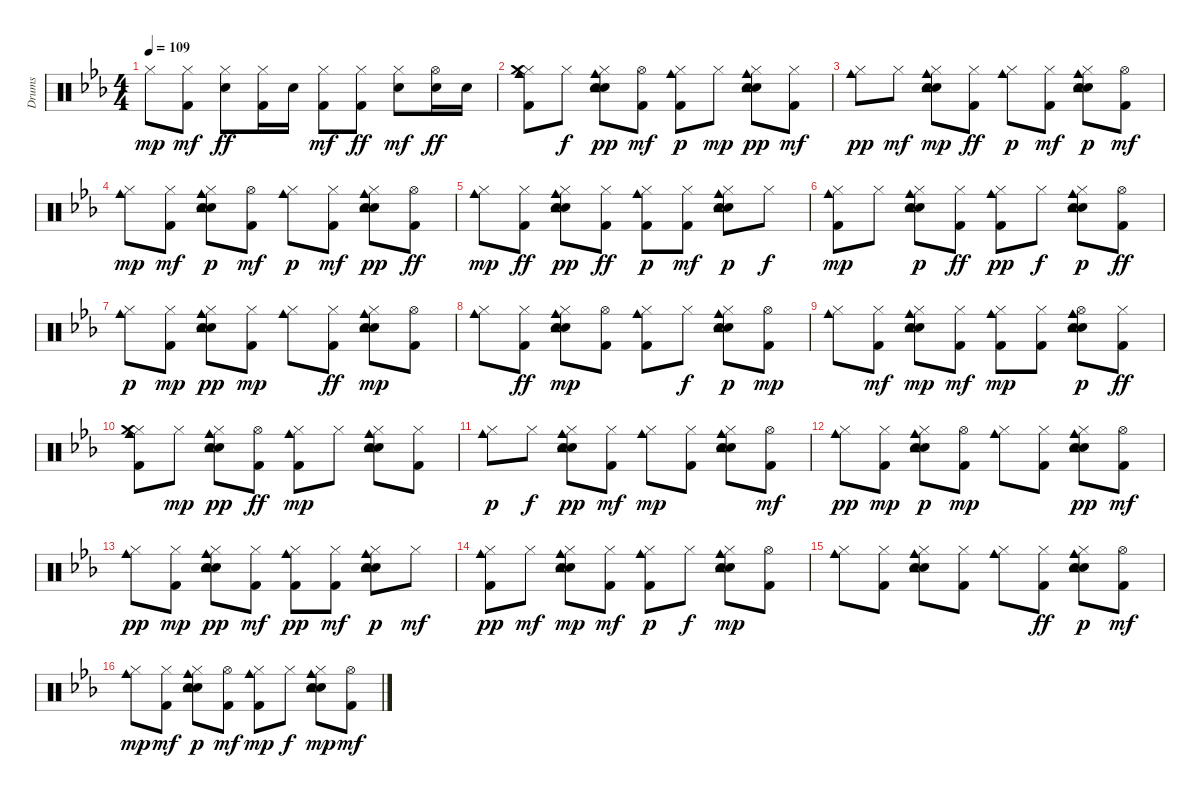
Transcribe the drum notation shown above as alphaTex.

\track ("Drums" "Drums") {instrument percussion}
\staff {score}
\articulation defaults
\ts (4 4)
\tempo 109
\clef neutral
\ks eb "Hi-Hat (closed)".8{dy mp}
("Kick (hit) 2" "Hi-Hat (closed)").8{dy mf} ("Electric Snare (hit)" "Hi-Hat (closed)").8{dy ff} ("Kick (hit) 2" "Hi-Hat (closed)").16 "Electric Snare (hit)".16 ("Kick (hit) 2" "Hi-Hat (closed)").8{dy mf} ("Kick (hit) 2" "Hi-Hat (closed)").8{dy ff} ("Electric Snare (hit)" "Hi-Hat (closed)").8{dy mf} ("Electric Snare (hit)" "Hi-Hat (open)").16{dy ff} "Electric Snare (hit)".16 |
("Kick (hit) 2" "Hi-Hat (closed)" "Cowbell medium (hit)" "Crash medium (hit)").8 "Hi-Hat (closed)".8{dy f} ("Hand Clap (hit)" "Electric Snare (hit)" "Hi-Hat (closed)" "Tambourine (hit)" "Cowbell medium (hit)").8{dy pp} ("Kick (hit) 2" "Hi-Hat (open)").8{dy mf} ("Kick (hit) 2" "Hi-Hat (closed)" "Cowbell medium (hit)").8{dy p} "Hi-Hat (closed)".8{dy mp} ("Hand Clap (hit)" "Electric Snare (hit)" "Hi-Hat (closed)" "Tambourine (hit)" "Cowbell medium (hit)").8{dy pp} ("Kick (hit) 2" "Hi-Hat (closed)").8{dy mf} |
("Hi-Hat (closed)" "Cowbell medium (hit)").8{dy pp} "Hi-Hat (closed)".8{dy mf} ("Hand Clap (hit)" "Electric Snare (hit)" "Hi-Hat (closed)" "Tambourine (hit)" "Cowbell medium (hit)").8{dy mp} ("Kick (hit) 2" "Hi-Hat (closed)").8{dy ff} ("Hi-Hat (closed)" "Cowbell medium (hit)").8{dy p} ("Kick (hit) 2" "Hi-Hat (closed)").8{dy mf} ("Hand Clap (hit)" "Electric Snare (hit)" "Hi-Hat (closed)" "Tambourine (hit)" "Cowbell medium (hit)").8{dy p} ("Kick (hit) 2" "Hi-Hat (open)").8{dy mf} |
("Hi-Hat (closed)" "Cowbell medium (hit)").8{dy mp} ("Kick (hit) 2" "Hi-Hat (closed)").8{dy mf} ("Hand Clap (hit)" "Electric Snare (hit)" "Hi-Hat (closed)" "Tambourine (hit)" "Cowbell medium (hit)").8{dy p} ("Kick (hit) 2" "Hi-Hat (open)").8{dy mf} ("Hi-Hat (closed)" "Cowbell medium (hit)").8{dy p} ("Kick (hit) 2" "Hi-Hat (closed)").8{dy mf} ("Hand Clap (hit)" "Electric Snare (hit)" "Hi-Hat (closed)" "Tambourine (hit)" "Cowbell medium (hit)").8{dy pp} ("Kick (hit) 2" "Hi-Hat (open)").8{dy ff} |
("Hi-Hat (closed)" "Cowbell medium (hit)").8{dy mp} ("Kick (hit) 2" "Hi-Hat (closed)").8{dy ff} ("Hand Clap (hit)" "Electric Snare (hit)" "Hi-Hat (closed)" "Tambourine (hit)" "Cowbell medium (hit)").8{dy pp} ("Kick (hit) 2" "Hi-Hat (closed)").8{dy ff} ("Kick (hit) 2" "Hi-Hat (closed)" "Cowbell medium (hit)").8{dy p} ("Kick (hit) 2" "Hi-Hat (closed)").8{dy mf} ("Hand Clap (hit)" "Electric Snare (hit)" "Hi-Hat (closed)" "Tambourine (hit)" "Cowbell medium (hit)").8{dy p} "Hi-Hat (closed)".8{dy f} |
("Kick (hit) 2" "Hi-Hat (closed)" "Cowbell medium (hit)").8{dy mp} "Hi-Hat (closed)".8 ("Hand Clap (hit)" "Electric Snare (hit)" "Hi-Hat (closed)" "Tambourine (hit)" "Cowbell medium (hit)").8{dy p} ("Kick (hit) 2" "Hi-Hat (closed)").8{dy ff} ("Kick (hit) 2" "Hi-Hat (closed)" "Cowbell medium (hit)").8{dy pp} "Hi-Hat (closed)".8{dy f} ("Hand Clap (hit)" "Electric Snare (hit)" "Hi-Hat (closed)" "Tambourine (hit)" "Cowbell medium (hit)").8{dy p} ("Kick (hit) 2" "Hi-Hat (open)").8{dy ff} |
("Hi-Hat (closed)" "Cowbell medium (hit)").8{dy p} ("Kick (hit) 2" "Hi-Hat (closed)").8{dy mp} ("Hand Clap (hit)" "Electric Snare (hit)" "Hi-Hat (closed)" "Tambourine (hit)" "Cowbell medium (hit)").8{dy pp} ("Kick (hit) 2" "Hi-Hat (closed)").8{dy mp} ("Hi-Hat (closed)" "Cowbell medium (hit)").8 ("Kick (hit) 2" "Hi-Hat (closed)").8{dy ff} ("Hand Clap (hit)" "Electric Snare (hit)" "Hi-Hat (closed)" "Tambourine (hit)" "Cowbell medium (hit)").8{dy mp} ("Kick (hit) 2" "Hi-Hat (open)").8 |
("Hi-Hat (closed)" "Cowbell medium (hit)").8 ("Kick (hit) 2" "Hi-Hat (closed)").8{dy ff} ("Hand Clap (hit)" "Electric Snare (hit)" "Hi-Hat (closed)" "Tambourine (hit)" "Cowbell medium (hit)").8{dy mp} ("Kick (hit) 2" "Hi-Hat (open)").8 ("Kick (hit) 2" "Hi-Hat (closed)" "Cowbell medium (hit)").8 "Hi-Hat (closed)".8{dy f} ("Hand Clap (hit)" "Electric Snare (hit)" "Hi-Hat (closed)" "Tambourine (hit)" "Cowbell medium (hit)").8{dy p} ("Kick (hit) 2" "Hi-Hat (open)").8{dy mp} |
("Hi-Hat (closed)" "Cowbell medium (hit)").8 ("Kick (hit) 2" "Hi-Hat (closed)").8{dy mf} ("Hand Clap (hit)" "Electric Snare (hit)" "Hi-Hat (closed)" "Tambourine (hit)" "Cowbell medium (hit)").8{dy mp} ("Kick (hit) 2" "Hi-Hat (closed)").8{dy mf} ("Kick (hit) 2" "Hi-Hat (closed)" "Cowbell medium (hit)").8{dy mp} ("Kick (hit) 2" "Hi-Hat (closed)").8 ("Hand Clap (hit)" "Electric Snare (hit)" "Hi-Hat (open)" "Tambourine (hit)" "Cowbell medium (hit)").8{dy p} ("Kick (hit) 2" "Hi-Hat (closed)").8{dy ff} |
("Kick (hit) 2" "Hi-Hat (closed)" "Cowbell medium (hit)" "Crash medium (hit)").8 "Hi-Hat (closed)".8{dy mp} ("Hand Clap (hit)" "Electric Snare (hit)" "Hi-Hat (closed)" "Tambourine (hit)" "Cowbell medium (hit)").8{dy pp} ("Kick (hit) 2" "Hi-Hat (open)").8{dy ff} ("Kick (hit) 2" "Hi-Hat (closed)" "Cowbell medium (hit)").8{dy mp} "Hi-Hat (closed)".8 ("Hand Clap (hit)" "Electric Snare (hit)" "Hi-Hat (closed)" "Tambourine (hit)" "Cowbell medium (hit)").8 ("Kick (hit) 2" "Hi-Hat (closed)").8 |
("Hi-Hat (closed)" "Cowbell medium (hit)").8{dy p} "Hi-Hat (closed)".8{dy f} ("Hand Clap (hit)" "Electric Snare (hit)" "Hi-Hat (closed)" "Tambourine (hit)" "Cowbell medium (hit)").8{dy pp} ("Kick (hit) 2" "Hi-Hat (closed)").8{dy mf} ("Hi-Hat (closed)" "Cowbell medium (hit)").8{dy mp} ("Kick (hit) 2" "Hi-Hat (closed)").8 ("Hand Clap (hit)" "Electric Snare (hit)" "Hi-Hat (closed)" "Tambourine (hit)" "Cowbell medium (hit)").8 ("Kick (hit) 2" "Hi-Hat (open)").8{dy mf} |
("Hi-Hat (closed)" "Cowbell medium (hit)").8{dy pp} ("Kick (hit) 2" "Hi-Hat (closed)").8{dy mp} ("Hand Clap (hit)" "Electric Snare (hit)" "Hi-Hat (closed)" "Tambourine (hit)" "Cowbell medium (hit)").8{dy p} ("Kick (hit) 2" "Hi-Hat (open)").8{dy mp} ("Hi-Hat (closed)" "Cowbell medium (hit)").8 ("Kick (hit) 2" "Hi-Hat (closed)").8 ("Hand Clap (hit)" "Electric Snare (hit)" "Hi-Hat (closed)" "Tambourine (hit)" "Cowbell medium (hit)").8{dy pp} ("Kick (hit) 2" "Hi-Hat (open)").8{dy mf} |
("Hi-Hat (closed)" "Cowbell medium (hit)").8{dy pp} ("Kick (hit) 2" "Hi-Hat (closed)").8{dy mp} ("Hand Clap (hit)" "Electric Snare (hit)" "Hi-Hat (closed)" "Tambourine (hit)" "Cowbell medium (hit)").8{dy pp} ("Kick (hit) 2" "Hi-Hat (closed)").8{dy mf} ("Kick (hit) 2" "Hi-Hat (closed)" "Cowbell medium (hit)").8{dy pp} ("Kick (hit) 2" "Hi-Hat (closed)").8{dy mf} ("Hand Clap (hit)" "Electric Snare (hit)" "Hi-Hat (closed)" "Tambourine (hit)" "Cowbell medium (hit)").8{dy p} "Hi-Hat (closed)".8{dy mf} |
("Kick (hit) 2" "Hi-Hat (closed)" "Cowbell medium (hit)").8{dy pp} "Hi-Hat (closed)".8{dy mf} ("Hand Clap (hit)" "Electric Snare (hit)" "Hi-Hat (closed)" "Tambourine (hit)" "Cowbell medium (hit)").8{dy mp} ("Kick (hit) 2" "Hi-Hat (closed)").8{dy mf} ("Kick (hit) 2" "Hi-Hat (closed)" "Cowbell medium (hit)").8{dy p} "Hi-Hat (closed)".8{dy f} ("Hand Clap (hit)" "Electric Snare (hit)" "Hi-Hat (closed)" "Tambourine (hit)" "Cowbell medium (hit)").8{dy mp} ("Kick (hit) 2" "Hi-Hat (open)").8 |
("Hi-Hat (closed)" "Cowbell medium (hit)").8 ("Kick (hit) 2" "Hi-Hat (closed)").8 ("Hand Clap (hit)" "Electric Snare (hit)" "Hi-Hat (closed)" "Tambourine (hit)" "Cowbell medium (hit)").8 ("Kick (hit) 2" "Hi-Hat (closed)").8 ("Hi-Hat (closed)" "Cowbell medium (hit)").8 ("Kick (hit) 2" "Hi-Hat (closed)").8{dy ff} ("Hand Clap (hit)" "Electric Snare (hit)" "Hi-Hat (closed)" "Tambourine (hit)" "Cowbell medium (hit)").8{dy p} ("Kick (hit) 2" "Hi-Hat (open)").8{dy mf} |
("Hi-Hat (closed)" "Cowbell medium (hit)").8{dy mp} ("Kick (hit) 2" "Hi-Hat (closed)").8{dy mf} ("Hand Clap (hit)" "Electric Snare (hit)" "Hi-Hat (closed)" "Tambourine (hit)" "Cowbell medium (hit)").8{dy p} ("Kick (hit) 2" "Hi-Hat (open)").8{dy mf} ("Kick (hit) 2" "Hi-Hat (closed)" "Cowbell medium (hit)").8{dy mp} "Hi-Hat (closed)".8{dy f} ("Hand Clap (hit)" "Electric Snare (hit)" "Hi-Hat (closed)" "Tambourine (hit)" "Cowbell medium (hit)").8{dy mp} ("Kick (hit) 2" "Hi-Hat (open)").8{dy mf}
